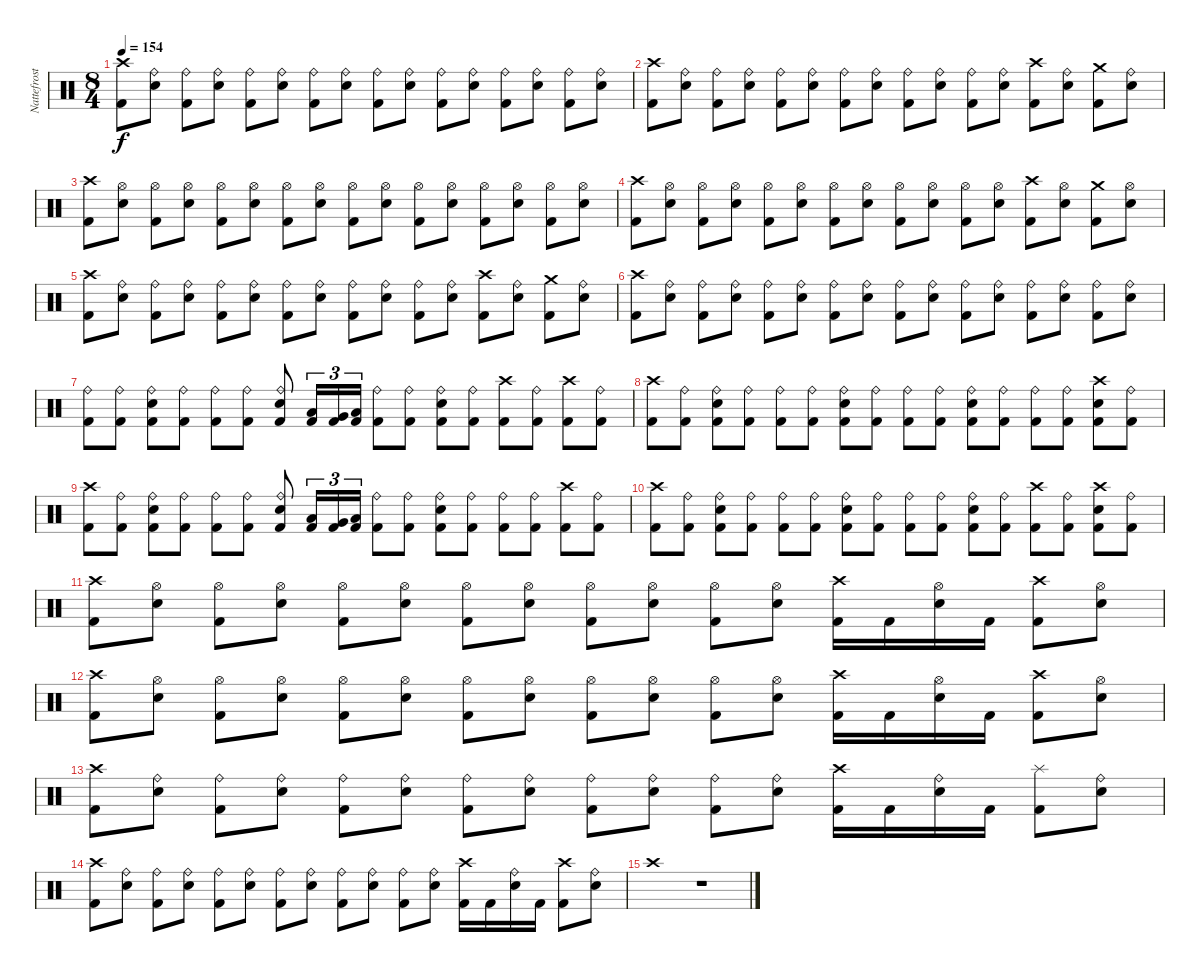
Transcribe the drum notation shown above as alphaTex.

\track ("Nattefrost" "Nattefrost") {instrument percussion}
\staff {score}
\articulation defaults
\ts (8 4)
\tempo 154
\clef neutral
\ks c
("Crash high (hit)" "Kick (hit) 2").8{dy f} ("Ride (bell)" "Snare (hit) 2").8 ("Ride (bell)" "Kick (hit) 2").8 ("Ride (bell)" "Snare (hit) 2").8 ("Ride (bell)" "Kick (hit) 2").8 ("Ride (bell)" "Snare (hit) 2").8 ("Ride (bell)" "Kick (hit) 2").8 ("Ride (bell)" "Snare (hit) 2").8 ("Ride (bell)" "Kick (hit) 2").8 ("Ride (bell)" "Snare (hit) 2").8 ("Ride (bell)" "Kick (hit) 2").8 ("Ride (bell)" "Snare (hit) 2").8 ("Ride (bell)" "Kick (hit) 2").8 ("Ride (bell)" "Snare (hit) 2").8 ("Ride (bell)" "Kick (hit) 2").8 ("Ride (bell)" "Snare (hit) 2").8 |
("Crash high (hit)" "Kick (hit) 2").8 ("Ride (bell)" "Snare (hit) 2").8 ("Ride (bell)" "Kick (hit) 2").8 ("Ride (bell)" "Snare (hit) 2").8 ("Ride (bell)" "Kick (hit) 2").8 ("Ride (bell)" "Snare (hit) 2").8 ("Ride (bell)" "Kick (hit) 2").8 ("Ride (bell)" "Snare (hit) 2").8 ("Ride (bell)" "Kick (hit) 2").8 ("Ride (bell)" "Snare (hit) 2").8 ("Ride (bell)" "Kick (hit) 2").8 ("Ride (bell)" "Snare (hit) 2").8 ("Crash high (hit)" "Kick (hit) 2").8 ("Ride (bell)" "Snare (hit) 2").8 ("Crash medium (hit)" "Kick (hit) 2").8 ("Ride (bell)" "Snare (hit) 2").8 |
("Crash high (hit)" "Kick (hit) 2").8 ("Hi-Hat (open)" "Snare (hit) 2").8 ("Hi-Hat (open)" "Kick (hit) 2").8 ("Hi-Hat (open)" "Snare (hit) 2").8 ("Hi-Hat (open)" "Kick (hit) 2").8 ("Hi-Hat (open)" "Snare (hit) 2").8 ("Hi-Hat (open)" "Kick (hit) 2").8 ("Hi-Hat (open)" "Snare (hit) 2").8 ("Hi-Hat (open)" "Kick (hit) 2").8 ("Hi-Hat (open)" "Snare (hit) 2").8 ("Hi-Hat (open)" "Kick (hit) 2").8 ("Hi-Hat (open)" "Snare (hit) 2").8 ("Hi-Hat (open)" "Kick (hit) 2").8 ("Hi-Hat (open)" "Snare (hit) 2").8 ("Hi-Hat (open)" "Kick (hit) 2").8 ("Hi-Hat (open)" "Snare (hit) 2").8 |
("Crash high (hit)" "Kick (hit) 2").8 ("Hi-Hat (open)" "Snare (hit) 2").8 ("Hi-Hat (open)" "Kick (hit) 2").8 ("Hi-Hat (open)" "Snare (hit) 2").8 ("Hi-Hat (open)" "Kick (hit) 2").8 ("Hi-Hat (open)" "Snare (hit) 2").8 ("Hi-Hat (open)" "Kick (hit) 2").8 ("Hi-Hat (open)" "Snare (hit) 2").8 ("Hi-Hat (open)" "Kick (hit) 2").8 ("Hi-Hat (open)" "Snare (hit) 2").8 ("Hi-Hat (open)" "Kick (hit) 2").8 ("Hi-Hat (open)" "Snare (hit) 2").8 ("Crash high (hit)" "Kick (hit) 2").8 ("Hi-Hat (open)" "Snare (hit) 2").8 ("Crash medium (hit)" "Kick (hit) 2").8 ("Hi-Hat (open)" "Snare (hit) 2").8 |
("Crash high (hit)" "Kick (hit) 2").8 ("Ride (bell)" "Snare (hit) 2").8 ("Ride (bell)" "Kick (hit) 2").8 ("Ride (bell)" "Snare (hit) 2").8 ("Ride (bell)" "Kick (hit) 2").8 ("Ride (bell)" "Snare (hit) 2").8 ("Ride (bell)" "Kick (hit) 2").8 ("Ride (bell)" "Snare (hit) 2").8 ("Ride (bell)" "Kick (hit) 2").8 ("Ride (bell)" "Snare (hit) 2").8 ("Ride (bell)" "Kick (hit) 2").8 ("Ride (bell)" "Snare (hit) 2").8 ("Crash high (hit)" "Kick (hit) 2").8 ("Ride (bell)" "Snare (hit) 2").8 ("Crash medium (hit)" "Kick (hit) 2").8 ("Ride (bell)" "Snare (hit) 2").8 |
("Crash high (hit)" "Kick (hit) 2").8 ("Ride (bell)" "Snare (hit) 2").8 ("Ride (bell)" "Kick (hit) 2").8 ("Ride (bell)" "Snare (hit) 2").8 ("Ride (bell)" "Kick (hit) 2").8 ("Ride (bell)" "Snare (hit) 2").8 ("Ride (bell)" "Kick (hit) 2").8 ("Ride (bell)" "Snare (hit) 2").8 ("Ride (bell)" "Kick (hit) 2").8 ("Ride (bell)" "Snare (hit) 2").8 ("Ride (bell)" "Kick (hit) 2").8 ("Ride (bell)" "Snare (hit) 2").8 ("Ride (bell)" "Kick (hit) 2").8 ("Ride (bell)" "Snare (hit) 2").8 ("Ride (bell)" "Kick (hit) 2").8 ("Ride (bell)" "Snare (hit) 2").8 |
("Ride (bell)" "Kick (hit) 2").8 ("Ride (bell)" "Kick (hit) 2").8 ("Ride (bell)" "Snare (hit) 2" "Kick (hit) 2").8 ("Ride (bell)" "Kick (hit) 2").8 ("Ride (bell)" "Kick (hit) 2").8 ("Ride (bell)" "Kick (hit) 2").8 ("Ride (bell)" "Snare (hit) 2" "Kick (hit) 2").8 ("Low Tom (hit)" "Kick (hit) 2").16{tu (3 2)} ("Very Low Tom (hit)" "Kick (hit) 2").16{tu (3 2)} ("Low Floor Tom (hit)" "Kick (hit) 2").16{tu (3 2)} ("Ride (bell)" "Kick (hit) 2").8 ("Ride (bell)" "Kick (hit) 2").8 ("Ride (bell)" "Snare (hit) 2" "Kick (hit) 2").8 ("Ride (bell)" "Kick (hit) 2").8 ("Crash high (hit)" "Kick (hit) 2").8 ("Ride (bell)" "Kick (hit) 2").8 ("Crash high (hit)" "Kick (hit) 2").8 ("Ride (bell)" "Kick (hit) 2").8 |
("Crash high (hit)" "Kick (hit) 2").8 ("Ride (bell)" "Kick (hit) 2").8 ("Ride (bell)" "Snare (hit) 2" "Kick (hit) 2").8 ("Ride (bell)" "Kick (hit) 2").8 ("Ride (bell)" "Kick (hit) 2").8 ("Ride (bell)" "Kick (hit) 2").8 ("Ride (bell)" "Snare (hit) 2" "Kick (hit) 2").8 ("Ride (bell)" "Kick (hit) 2").8 ("Ride (bell)" "Kick (hit) 2").8 ("Ride (bell)" "Kick (hit) 2").8 ("Ride (bell)" "Snare (hit) 2" "Kick (hit) 2").8 ("Ride (bell)" "Kick (hit) 2").8 ("Ride (bell)" "Kick (hit) 2").8 ("Ride (bell)" "Kick (hit) 2").8 ("Crash high (hit)" "Snare (hit) 2" "Kick (hit) 2").8 ("Ride (bell)" "Kick (hit) 2").8 |
("Crash high (hit)" "Kick (hit) 2").8 ("Ride (bell)" "Kick (hit) 2").8 ("Ride (bell)" "Snare (hit) 2" "Kick (hit) 2").8 ("Ride (bell)" "Kick (hit) 2").8 ("Ride (bell)" "Kick (hit) 2").8 ("Ride (bell)" "Kick (hit) 2").8 ("Ride (bell)" "Snare (hit) 2" "Kick (hit) 2").8 ("Low Tom (hit)" "Kick (hit) 2").16{tu (3 2)} ("Very Low Tom (hit)" "Kick (hit) 2").16{tu (3 2)} ("Low Floor Tom (hit)" "Kick (hit) 2").16{tu (3 2)} ("Ride (bell)" "Kick (hit) 2").8 ("Ride (bell)" "Kick (hit) 2").8 ("Ride (bell)" "Snare (hit) 2" "Kick (hit) 2").8 ("Ride (bell)" "Kick (hit) 2").8 ("Ride (bell)" "Kick (hit) 2").8 ("Ride (bell)" "Kick (hit) 2").8 ("Crash high (hit)" "Kick (hit) 2").8 ("Ride (bell)" "Kick (hit) 2").8 |
("Crash high (hit)" "Kick (hit) 2").8 ("Ride (bell)" "Kick (hit) 2").8 ("Ride (bell)" "Snare (hit) 2" "Kick (hit) 2").8 ("Ride (bell)" "Kick (hit) 2").8 ("Ride (bell)" "Kick (hit) 2").8 ("Ride (bell)" "Kick (hit) 2").8 ("Ride (bell)" "Snare (hit) 2" "Kick (hit) 2").8 ("Ride (bell)" "Kick (hit) 2").8 ("Ride (bell)" "Kick (hit) 2").8 ("Ride (bell)" "Kick (hit) 2").8 ("Ride (bell)" "Snare (hit) 2" "Kick (hit) 2").8 ("Ride (bell)" "Kick (hit) 2").8 ("Crash high (hit)" "Kick (hit) 2").8 ("Ride (bell)" "Kick (hit) 2").8 ("Crash high (hit)" "Snare (hit) 2" "Kick (hit) 2").8 ("Ride (bell)" "Kick (hit) 2").8 |
("Crash high (hit)" "Kick (hit) 2").8 ("Hi-Hat (open)" "Snare (hit) 2").8 ("Hi-Hat (open)" "Kick (hit) 2").8 ("Hi-Hat (open)" "Snare (hit) 2").8 ("Hi-Hat (open)" "Kick (hit) 2").8 ("Hi-Hat (open)" "Snare (hit) 2").8 ("Hi-Hat (open)" "Kick (hit) 2").8 ("Hi-Hat (open)" "Snare (hit) 2").8 ("Hi-Hat (open)" "Kick (hit) 2").8 ("Hi-Hat (open)" "Snare (hit) 2").8 ("Hi-Hat (open)" "Kick (hit) 2").8 ("Hi-Hat (open)" "Snare (hit) 2").8 ("Crash high (hit)" "Kick (hit) 2").16 "Kick (hit) 2".16 ("Hi-Hat (open)" "Snare (hit) 2").16 "Kick (hit) 2".16 ("Crash high (hit)" "Kick (hit) 2").8 ("Hi-Hat (open)" "Snare (hit) 2").8 |
("Crash high (hit)" "Kick (hit) 2").8 ("Hi-Hat (open)" "Snare (hit) 2").8 ("Hi-Hat (open)" "Kick (hit) 2").8 ("Hi-Hat (open)" "Snare (hit) 2").8 ("Hi-Hat (open)" "Kick (hit) 2").8 ("Hi-Hat (open)" "Snare (hit) 2").8 ("Hi-Hat (open)" "Kick (hit) 2").8 ("Hi-Hat (open)" "Snare (hit) 2").8 ("Hi-Hat (open)" "Kick (hit) 2").8 ("Hi-Hat (open)" "Snare (hit) 2").8 ("Hi-Hat (open)" "Kick (hit) 2").8 ("Hi-Hat (open)" "Snare (hit) 2").8 ("Crash high (hit)" "Kick (hit) 2").16 "Kick (hit) 2".16 ("Hi-Hat (open)" "Snare (hit) 2").16 "Kick (hit) 2".16 ("Crash high (hit)" "Kick (hit) 2").8 ("Hi-Hat (open)" "Snare (hit) 2").8 |
("Crash high (hit)" "Kick (hit) 2").8 ("Ride (bell)" "Snare (hit) 2").8 ("Ride (bell)" "Kick (hit) 2").8 ("Ride (bell)" "Snare (hit) 2").8 ("Ride (bell)" "Kick (hit) 2").8 ("Ride (bell)" "Snare (hit) 2").8 ("Ride (bell)" "Kick (hit) 2").8 ("Ride (bell)" "Snare (hit) 2").8 ("Ride (bell)" "Kick (hit) 2").8 ("Ride (bell)" "Snare (hit) 2").8 ("Ride (bell)" "Kick (hit) 2").8 ("Ride (bell)" "Snare (hit) 2").8 ("Crash high (hit)" "Kick (hit) 2").16 "Kick (hit) 2".16 ("Ride (bell)" "Snare (hit) 2").16 "Kick (hit) 2".16 ("Splash (hit)" "Kick (hit) 2").8 ("Ride (bell)" "Snare (hit) 2").8 |
("Crash high (hit)" "Kick (hit) 2").8 ("Ride (bell)" "Snare (hit) 2").8 ("Ride (bell)" "Kick (hit) 2").8 ("Ride (bell)" "Snare (hit) 2").8 ("Ride (bell)" "Kick (hit) 2").8 ("Ride (bell)" "Snare (hit) 2").8 ("Ride (bell)" "Kick (hit) 2").8 ("Ride (bell)" "Snare (hit) 2").8 ("Ride (bell)" "Kick (hit) 2").8 ("Ride (bell)" "Snare (hit) 2").8 ("Ride (bell)" "Kick (hit) 2").8 ("Ride (bell)" "Snare (hit) 2").8 ("Crash high (hit)" "Kick (hit) 2").16 "Kick (hit) 2".16 ("Ride (bell)" "Snare (hit) 2").16 "Kick (hit) 2".16 ("Crash high (hit)" "Kick (hit) 2").8 ("Ride (bell)" "Snare (hit) 2").8 |
"Crash high (hit)".1 r.1
